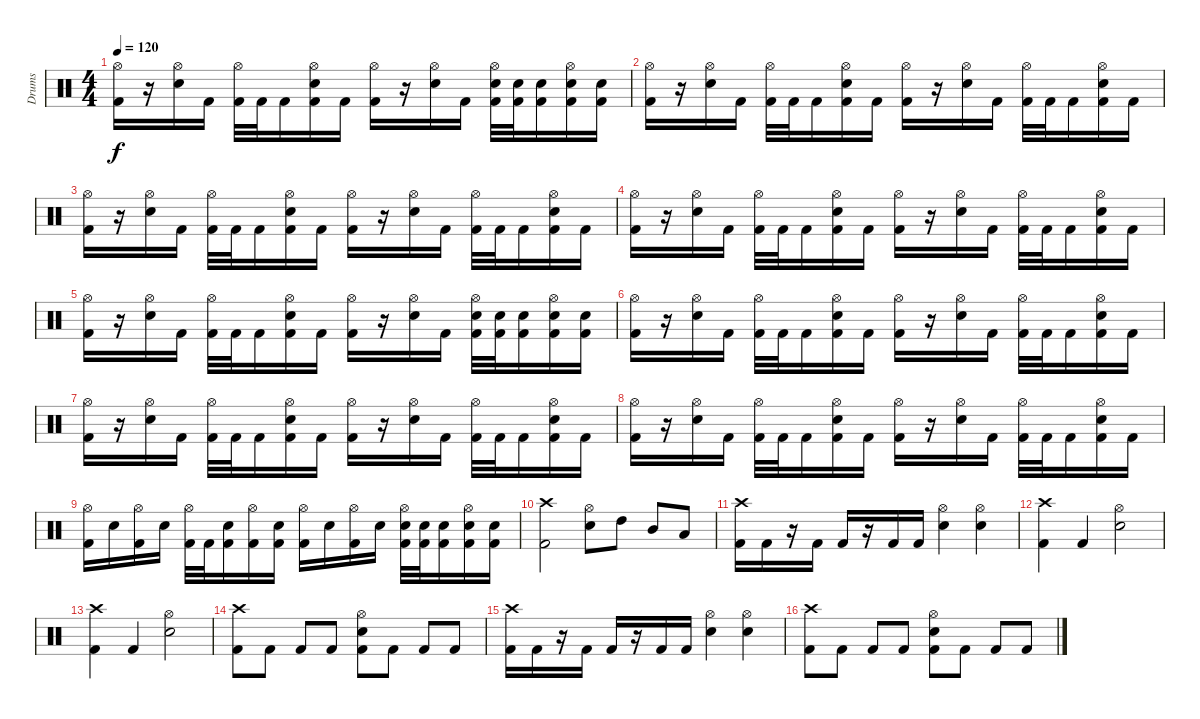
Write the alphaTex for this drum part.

\track ("Drums" "Drums") {instrument percussion}
\staff {score}
\articulation defaults
\ts (4 4)
\tempo 120
\clef neutral
\ks c
("Hi-Hat (open)" "Kick (hit) 2").16{dy f} r.16 ("Hi-Hat (open)" "Snare (hit) 2").16 "Kick (hit) 2".16 ("Hi-Hat (open)" "Kick (hit) 2").32 "Kick (hit) 2".32 "Kick (hit) 2".16 ("Hi-Hat (open)" "Snare (hit) 2" "Kick (hit) 2").16 "Kick (hit) 2".16 ("Hi-Hat (open)" "Kick (hit) 2").16 r.16 ("Hi-Hat (open)" "Snare (hit) 2").16 "Kick (hit) 2".16 ("Hi-Hat (open)" "Snare (hit) 2" "Kick (hit) 2").32 ("Snare (hit) 2" "Kick (hit) 2").32 ("Snare (hit) 2" "Kick (hit) 2").16 ("Hi-Hat (open)" "Snare (hit) 2" "Kick (hit) 2").16 ("Snare (hit) 2" "Kick (hit) 2").16 |
("Hi-Hat (open)" "Kick (hit) 2").16 r.16 ("Hi-Hat (open)" "Snare (hit) 2").16 "Kick (hit) 2".16 ("Hi-Hat (open)" "Kick (hit) 2").32 "Kick (hit) 2".32 "Kick (hit) 2".16 ("Hi-Hat (open)" "Snare (hit) 2" "Kick (hit) 2").16 "Kick (hit) 2".16 ("Hi-Hat (open)" "Kick (hit) 2").16 r.16 ("Hi-Hat (open)" "Snare (hit) 2").16 "Kick (hit) 2".16 ("Hi-Hat (open)" "Kick (hit) 2").32 "Kick (hit) 2".32 "Kick (hit) 2".16 ("Hi-Hat (open)" "Snare (hit) 2" "Kick (hit) 2").16 "Kick (hit) 2".16 |
("Hi-Hat (open)" "Kick (hit) 2").16 r.16 ("Hi-Hat (open)" "Snare (hit) 2").16 "Kick (hit) 2".16 ("Hi-Hat (open)" "Kick (hit) 2").32 "Kick (hit) 2".32 "Kick (hit) 2".16 ("Hi-Hat (open)" "Snare (hit) 2" "Kick (hit) 2").16 "Kick (hit) 2".16 ("Hi-Hat (open)" "Kick (hit) 2").16 r.16 ("Hi-Hat (open)" "Snare (hit) 2").16 "Kick (hit) 2".16 ("Hi-Hat (open)" "Kick (hit) 2").32 "Kick (hit) 2".32 "Kick (hit) 2".16 ("Hi-Hat (open)" "Snare (hit) 2" "Kick (hit) 2").16 "Kick (hit) 2".16 |
("Hi-Hat (open)" "Kick (hit) 2").16 r.16 ("Hi-Hat (open)" "Snare (hit) 2").16 "Kick (hit) 2".16 ("Hi-Hat (open)" "Kick (hit) 2").32 "Kick (hit) 2".32 "Kick (hit) 2".16 ("Hi-Hat (open)" "Snare (hit) 2" "Kick (hit) 2").16 "Kick (hit) 2".16 ("Hi-Hat (open)" "Kick (hit) 2").16 r.16 ("Hi-Hat (open)" "Snare (hit) 2").16 "Kick (hit) 2".16 ("Hi-Hat (open)" "Kick (hit) 2").32 "Kick (hit) 2".32 "Kick (hit) 2".16 ("Hi-Hat (open)" "Snare (hit) 2" "Kick (hit) 2").16 "Kick (hit) 2".16 |
("Hi-Hat (open)" "Kick (hit) 2").16 r.16 ("Hi-Hat (open)" "Snare (hit) 2").16 "Kick (hit) 2".16 ("Hi-Hat (open)" "Kick (hit) 2").32 "Kick (hit) 2".32 "Kick (hit) 2".16 ("Hi-Hat (open)" "Snare (hit) 2" "Kick (hit) 2").16 "Kick (hit) 2".16 ("Hi-Hat (open)" "Kick (hit) 2").16 r.16 ("Hi-Hat (open)" "Snare (hit) 2").16 "Kick (hit) 2".16 ("Hi-Hat (open)" "Snare (hit) 2" "Kick (hit) 2").32 ("Snare (hit) 2" "Kick (hit) 2").32 ("Snare (hit) 2" "Kick (hit) 2").16 ("Hi-Hat (open)" "Snare (hit) 2" "Kick (hit) 2").16 ("Snare (hit) 2" "Kick (hit) 2").16 |
("Hi-Hat (open)" "Kick (hit) 2").16 r.16 ("Hi-Hat (open)" "Snare (hit) 2").16 "Kick (hit) 2".16 ("Hi-Hat (open)" "Kick (hit) 2").32 "Kick (hit) 2".32 "Kick (hit) 2".16 ("Hi-Hat (open)" "Snare (hit) 2" "Kick (hit) 2").16 "Kick (hit) 2".16 ("Hi-Hat (open)" "Kick (hit) 2").16 r.16 ("Hi-Hat (open)" "Snare (hit) 2").16 "Kick (hit) 2".16 ("Hi-Hat (open)" "Kick (hit) 2").32 "Kick (hit) 2".32 "Kick (hit) 2".16 ("Hi-Hat (open)" "Snare (hit) 2" "Kick (hit) 2").16 "Kick (hit) 2".16 |
("Hi-Hat (open)" "Kick (hit) 2").16 r.16 ("Hi-Hat (open)" "Snare (hit) 2").16 "Kick (hit) 2".16 ("Hi-Hat (open)" "Kick (hit) 2").32 "Kick (hit) 2".32 "Kick (hit) 2".16 ("Hi-Hat (open)" "Snare (hit) 2" "Kick (hit) 2").16 "Kick (hit) 2".16 ("Hi-Hat (open)" "Kick (hit) 2").16 r.16 ("Hi-Hat (open)" "Snare (hit) 2").16 "Kick (hit) 2".16 ("Hi-Hat (open)" "Kick (hit) 2").32 "Kick (hit) 2".32 "Kick (hit) 2".16 ("Hi-Hat (open)" "Snare (hit) 2" "Kick (hit) 2").16 "Kick (hit) 2".16 |
("Hi-Hat (open)" "Kick (hit) 2").16 r.16 ("Hi-Hat (open)" "Snare (hit) 2").16 "Kick (hit) 2".16 ("Hi-Hat (open)" "Kick (hit) 2").32 "Kick (hit) 2".32 "Kick (hit) 2".16 ("Hi-Hat (open)" "Snare (hit) 2" "Kick (hit) 2").16 "Kick (hit) 2".16 ("Hi-Hat (open)" "Kick (hit) 2").16 r.16 ("Hi-Hat (open)" "Snare (hit) 2").16 "Kick (hit) 2".16 ("Hi-Hat (open)" "Kick (hit) 2").32 "Kick (hit) 2".32 "Kick (hit) 2".16 ("Hi-Hat (open)" "Snare (hit) 2" "Kick (hit) 2").16 "Kick (hit) 2".16 |
("Hi-Hat (open)" "Kick (hit) 2").16 "Snare (hit) 2".16 ("Hi-Hat (open)" "Kick (hit) 2").16 "Snare (hit) 2".16 ("Hi-Hat (open)" "Kick (hit) 2").32 "Kick (hit) 2".32 ("Snare (hit) 2" "Kick (hit) 2").16 ("Hi-Hat (open)" "Kick (hit) 2").16 ("Snare (hit) 2" "Kick (hit) 2").16 ("Hi-Hat (open)" "Kick (hit) 2").16 "Snare (hit) 2".16 ("Hi-Hat (open)" "Kick (hit) 2").16 "Snare (hit) 2".16 ("Hi-Hat (open)" "Snare (hit) 2" "Kick (hit) 2").32 ("Snare (hit) 2" "Kick (hit) 2").32 ("Snare (hit) 2" "Kick (hit) 2").16 ("Hi-Hat (open)" "Snare (hit) 2" "Kick (hit) 2").16 ("Snare (hit) 2" "Kick (hit) 2").16 |
("Crash high (hit)" "Kick (hit) 2").2 ("Hi-Hat (open)" "Snare (hit) 2").8 "High Tom (hit)".8 "Mid Tom (hit)".8 "Low Tom (hit)".8 |
("Crash high (hit)" "Kick (hit) 2").16 "Kick (hit) 2".16 r.16 "Kick (hit) 2".16 "Kick (hit) 2".16 r.16 "Kick (hit) 2".16 "Kick (hit) 2".16 ("Hi-Hat (open)" "Snare (hit) 2").4 ("Hi-Hat (open)" "Snare (hit) 2").4 |
("Crash high (hit)" "Kick (hit) 2").4 "Kick (hit) 2".4 ("Hi-Hat (open)" "Snare (hit) 2").2 |
("Crash high (hit)" "Kick (hit) 2").4 "Kick (hit) 2".4 ("Hi-Hat (open)" "Snare (hit) 2").2 |
("Crash high (hit)" "Kick (hit) 2").8 "Kick (hit) 2".8 "Kick (hit) 2".8 "Kick (hit) 2".8 ("Hi-Hat (open)" "Snare (hit) 2" "Kick (hit) 2").8 "Kick (hit) 2".8 "Kick (hit) 2".8 "Kick (hit) 2".8 |
("Crash high (hit)" "Kick (hit) 2").16 "Kick (hit) 2".16 r.16 "Kick (hit) 2".16 "Kick (hit) 2".16 r.16 "Kick (hit) 2".16 "Kick (hit) 2".16 ("Hi-Hat (open)" "Snare (hit) 2").4 ("Hi-Hat (open)" "Snare (hit) 2").4 |
("Crash high (hit)" "Kick (hit) 2").8 "Kick (hit) 2".8 "Kick (hit) 2".8 "Kick (hit) 2".8 ("Hi-Hat (open)" "Snare (hit) 2" "Kick (hit) 2").8 "Kick (hit) 2".8 "Kick (hit) 2".8 "Kick (hit) 2".8
